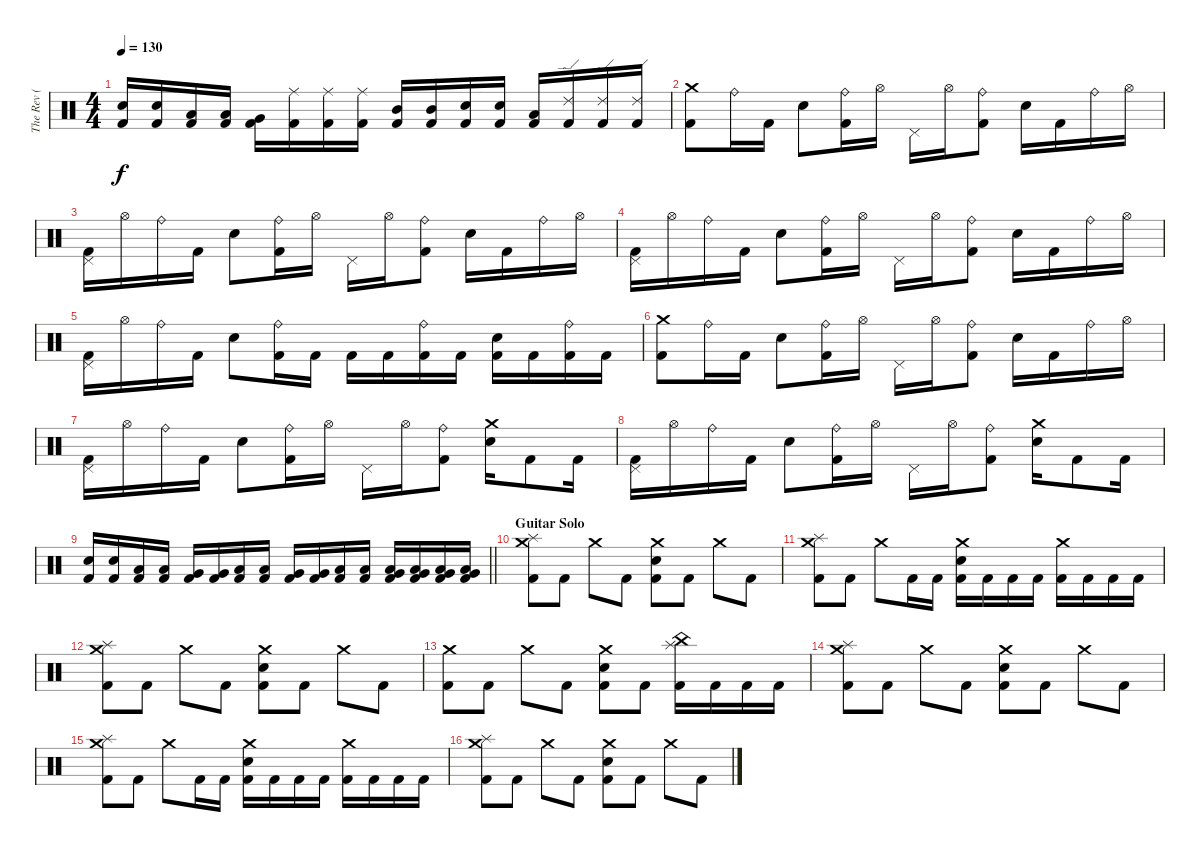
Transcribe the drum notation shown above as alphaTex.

\track ("The Rev ( Drums )" "The Rev ( ") {instrument percussion}
\staff {score}
\articulation defaults
\ts (4 4)
\tempo 130
\clef neutral
\ks c
("Snare (hit) 2" "Kick (hit) 2").16{dy f} ("Snare (hit) 2" "Kick (hit) 2").16 ("Low Tom (hit)" "Kick (hit) 2").16 ("Low Tom (hit)" "Kick (hit) 2").16 ("Very Low Tom (hit)" "Kick (hit) 2").16 ("Ride (middle)" "Kick (hit) 2").16 ("Ride (middle)" "Kick (hit) 2").16 ("Ride (middle)" "Kick (hit) 2").16 ("Mid Tom (hit)" "Kick (hit) 2").16 ("Mid Tom (hit)" "Kick (hit) 2").16 ("Snare (hit) 2" "Kick (hit) 2").16 ("Snare (hit) 2" "Kick (hit) 2").16 ("Low Tom (hit)" "Kick (hit) 2").16 ("Ride (edge) 2" "Kick (hit) 2").16 ("Ride (edge) 2" "Kick (hit) 2").16 ("Ride (edge) 2" "Kick (hit) 2").16 |
("Crash medium (hit)" "Kick (hit) 2").8 "Ride (bell)".16 "Kick (hit) 2".16 "Snare (hit) 2".8 ("Ride (bell)" "Kick (hit) 2").16 "Hi-Hat (open)".16 "Pedal Hi-Hat (hit)".16 "Hi-Hat (open)".16 ("Ride (bell)" "Kick (hit) 2").8 "Snare (hit) 2".16 "Kick (hit) 2".16 "Ride (bell)".16 "Hi-Hat (open)".16 |
("Pedal Hi-Hat (hit)" "Kick (hit) 2").16 "Hi-Hat (open)".16 "Ride (bell)".16 "Kick (hit) 2".16 "Snare (hit) 2".8 ("Ride (bell)" "Kick (hit) 2").16 "Hi-Hat (open)".16 "Pedal Hi-Hat (hit)".16 "Hi-Hat (open)".16 ("Ride (bell)" "Kick (hit) 2").8 "Snare (hit) 2".16 "Kick (hit) 2".16 "Ride (bell)".16 "Hi-Hat (open)".16 |
("Pedal Hi-Hat (hit)" "Kick (hit) 2").16 "Hi-Hat (open)".16 "Ride (bell)".16 "Kick (hit) 2".16 "Snare (hit) 2".8 ("Ride (bell)" "Kick (hit) 2").16 "Hi-Hat (open)".16 "Pedal Hi-Hat (hit)".16 "Hi-Hat (open)".16 ("Ride (bell)" "Kick (hit) 2").8 "Snare (hit) 2".16 "Kick (hit) 2".16 "Ride (bell)".16 "Hi-Hat (open)".16 |
("Pedal Hi-Hat (hit)" "Kick (hit) 2").16 "Hi-Hat (open)".16 "Ride (bell)".16 "Kick (hit) 2".16 "Snare (hit) 2".8 ("Ride (bell)" "Kick (hit) 2").16 "Kick (hit) 2".16 "Kick (hit) 2".16 "Kick (hit) 2".16 ("Ride (bell)" "Kick (hit) 2").16 "Kick (hit) 2".16 ("Snare (hit) 2" "Kick (hit) 2").16 "Kick (hit) 2".16 ("Ride (bell)" "Kick (hit) 2").16 "Kick (hit) 2".16 |
("Crash medium (hit)" "Kick (hit) 2").8 "Ride (bell)".16 "Kick (hit) 2".16 "Snare (hit) 2".8 ("Ride (bell)" "Kick (hit) 2").16 "Hi-Hat (open)".16 "Pedal Hi-Hat (hit)".16 "Hi-Hat (open)".16 ("Ride (bell)" "Kick (hit) 2").8 "Snare (hit) 2".16 "Kick (hit) 2".16 "Ride (bell)".16 "Hi-Hat (open)".16 |
("Pedal Hi-Hat (hit)" "Kick (hit) 2").16 "Hi-Hat (open)".16 "Ride (bell)".16 "Kick (hit) 2".16 "Snare (hit) 2".8 ("Ride (bell)" "Kick (hit) 2").16 "Hi-Hat (open)".16 "Pedal Hi-Hat (hit)".16 "Hi-Hat (open)".16 ("Ride (bell)" "Kick (hit) 2").8 ("Crash medium (hit)" "Snare (hit) 2").16 "Kick (hit) 2".8 "Kick (hit) 2".16 |
("Pedal Hi-Hat (hit)" "Kick (hit) 2").16 "Hi-Hat (open)".16 "Ride (bell)".16 "Kick (hit) 2".16 "Snare (hit) 2".8 ("Ride (bell)" "Kick (hit) 2").16 "Hi-Hat (open)".16 "Pedal Hi-Hat (hit)".16 "Hi-Hat (open)".16 ("Ride (bell)" "Kick (hit) 2").8 ("Crash medium (hit)" "Snare (hit) 2").16 "Kick (hit) 2".8 "Kick (hit) 2".16 |
\barLineRight lightlight
("Snare (hit) 2" "Kick (hit) 2").16 ("Snare (hit) 2" "Kick (hit) 2").16 ("Low Tom (hit)" "Kick (hit) 2").16 ("Low Tom (hit)" "Kick (hit) 2").16 ("Very Low Tom (hit)" "Kick (hit) 2").16 ("Very Low Tom (hit)" "Kick (hit) 2").16 ("Low Floor Tom (hit)" "Kick (hit) 2").16 ("Low Floor Tom (hit)" "Kick (hit) 2").16 ("Very Low Tom (hit)" "Kick (hit) 2").16 ("Very Low Tom (hit)" "Kick (hit) 2").16 ("Low Floor Tom (hit)" "Kick (hit) 2").16 ("Low Floor Tom (hit)" "Kick (hit) 2").16 ("Very Low Tom (hit)" "Low Floor Tom (hit)" "Kick (hit) 2").16 ("Very Low Tom (hit)" "Low Floor Tom (hit)" "Kick (hit) 2").16 ("Very Low Tom (hit)" "Low Floor Tom (hit)" "Kick (hit) 2").16 ("Very Low Tom (hit)" "Low Floor Tom (hit)" "Kick (hit) 2").16 |
\section ("" "Guitar Solo")
("Crash medium (hit)" "Splash (hit)" "Kick (hit) 2").8 "Kick (hit) 2".8 "Crash medium (hit)".8 "Kick (hit) 2".8 ("Crash medium (hit)" "Snare (hit) 2" "Kick (hit) 2").8 "Kick (hit) 2".8 "Crash medium (hit)".8 "Kick (hit) 2".8 |
("Crash medium (hit)" "Splash (hit)" "Kick (hit) 2").8 "Kick (hit) 2".8 "Crash medium (hit)".8 "Kick (hit) 2".16 "Kick (hit) 2".16 ("Crash medium (hit)" "Snare (hit) 2" "Kick (hit) 2").16 "Kick (hit) 2".16 "Kick (hit) 2".16 "Kick (hit) 2".16 ("Crash medium (hit)" "Kick (hit) 2").16 "Kick (hit) 2".16 "Kick (hit) 2".16 "Kick (hit) 2".16 |
("Crash medium (hit)" "Splash (hit)" "Kick (hit) 2").8 "Kick (hit) 2".8 "Crash medium (hit)".8 "Kick (hit) 2".8 ("Crash medium (hit)" "Snare (hit) 2" "Kick (hit) 2").8 "Kick (hit) 2".8 "Crash medium (hit)".8 "Kick (hit) 2".8 |
("Crash medium (hit)" "Kick (hit) 2").8 "Kick (hit) 2".8 "Crash medium (hit)".8 "Kick (hit) 2".8 ("Crash medium (hit)" "Snare (hit) 2" "Kick (hit) 2").8 "Kick (hit) 2".8 ("China (hit)" "Splash (hit)" "Kick (hit) 2").16 "Kick (hit) 2".16 "Kick (hit) 2".16 "Kick (hit) 2".16 |
("Crash medium (hit)" "Splash (hit)" "Kick (hit) 2").8 "Kick (hit) 2".8 "Crash medium (hit)".8 "Kick (hit) 2".8 ("Crash medium (hit)" "Snare (hit) 2" "Kick (hit) 2").8 "Kick (hit) 2".8 "Crash medium (hit)".8 "Kick (hit) 2".8 |
("Crash medium (hit)" "Splash (hit)" "Kick (hit) 2").8 "Kick (hit) 2".8 "Crash medium (hit)".8 "Kick (hit) 2".16 "Kick (hit) 2".16 ("Crash medium (hit)" "Snare (hit) 2" "Kick (hit) 2").16 "Kick (hit) 2".16 "Kick (hit) 2".16 "Kick (hit) 2".16 ("Crash medium (hit)" "Kick (hit) 2").16 "Kick (hit) 2".16 "Kick (hit) 2".16 "Kick (hit) 2".16 |
("Crash medium (hit)" "Splash (hit)" "Kick (hit) 2").8 "Kick (hit) 2".8 "Crash medium (hit)".8 "Kick (hit) 2".8 ("Crash medium (hit)" "Snare (hit) 2" "Kick (hit) 2").8 "Kick (hit) 2".8 "Crash medium (hit)".8 "Kick (hit) 2".8
